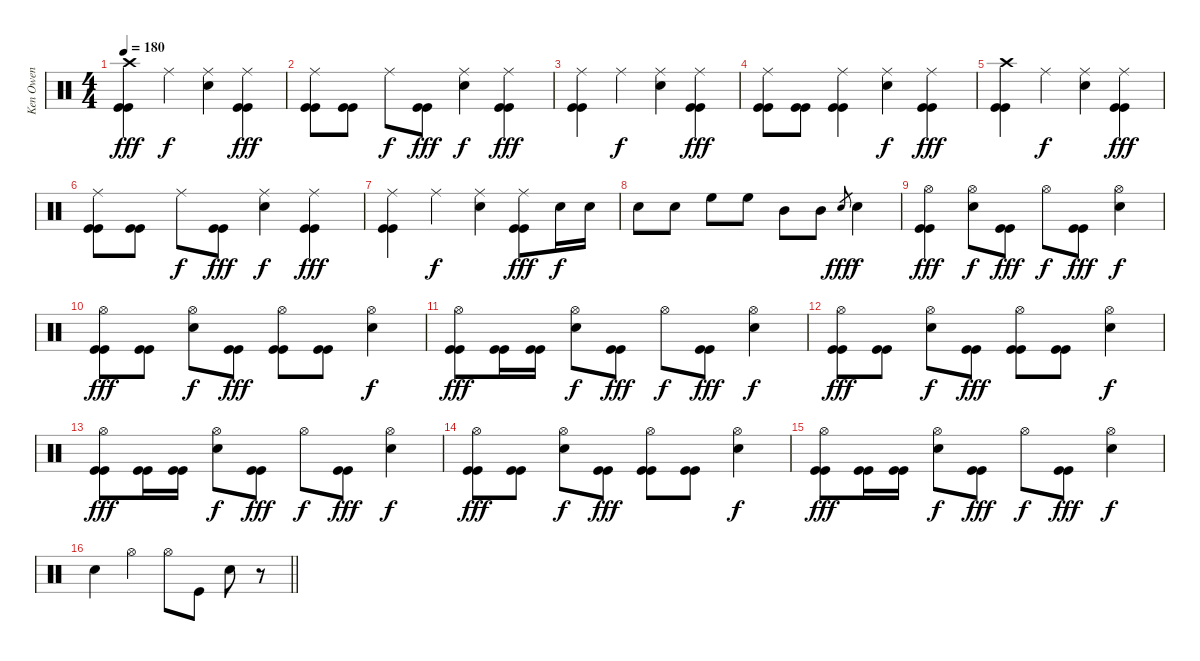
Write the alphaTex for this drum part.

\track ("Ken Owen" "Ken Owen") {instrument percussion}
\staff {score}
\articulation defaults
\ts (4 4)
\tempo 180
\clef neutral
\ks c
("Crash high (hit)" "Kick (hit)" "Kick (hit)").4{dy fff} "Ride (middle)".4{dy f} ("Ride (middle)" "Snare (hit) 2").4 ("Ride (middle)" "Kick (hit)" "Kick (hit)").4{dy fff} |
("Ride (middle)" "Kick (hit)" "Kick (hit)").8 ("Kick (hit)" "Kick (hit)").8 "Ride (middle)".8{dy f} ("Kick (hit)" "Kick (hit)").8{dy fff} ("Ride (middle)" "Snare (hit) 2").4{dy f} ("Ride (middle)" "Kick (hit)" "Kick (hit)").4{dy fff} |
("Ride (middle)" "Kick (hit)" "Kick (hit)").4 "Ride (middle)".4{dy f} ("Ride (middle)" "Snare (hit) 2").4 ("Ride (middle)" "Kick (hit)" "Kick (hit)").4{dy fff} |
("Ride (middle)" "Kick (hit)" "Kick (hit)").8 ("Kick (hit)" "Kick (hit)").8 ("Ride (middle)" "Kick (hit)" "Kick (hit)").4 ("Ride (middle)" "Snare (hit) 2").4{dy f} ("Ride (middle)" "Kick (hit)" "Kick (hit)").4{dy fff} |
("Crash high (hit)" "Kick (hit)" "Kick (hit)").4 "Ride (middle)".4{dy f} ("Ride (middle)" "Snare (hit) 2").4 ("Ride (middle)" "Kick (hit)" "Kick (hit)").4{dy fff} |
("Ride (middle)" "Kick (hit)" "Kick (hit)").8 ("Kick (hit)" "Kick (hit)").8 "Ride (middle)".8{dy f} ("Kick (hit)" "Kick (hit)").8{dy fff} ("Ride (middle)" "Snare (hit) 2").4{dy f} ("Ride (middle)" "Kick (hit)" "Kick (hit)").4{dy fff} |
("Ride (middle)" "Kick (hit)" "Kick (hit)").4 "Ride (middle)".4{dy f} ("Ride (middle)" "Snare (hit) 2").4 ("Ride (middle)" "Kick (hit)" "Kick (hit)").8{dy fff} "Snare (hit) 2".16{dy f} "Snare (hit) 2".16 |
"Snare (hit) 2".8 "Snare (hit) 2".8 "High Floor Tom (hit)".8 "High Floor Tom (hit)".8 "Mid Tom (hit)".8 "Mid Tom (hit)".8 "Snare (hit) 2".8{gr dy fff} "Snare (hit) 2".4{dy f} |
("Hi-Hat (open)" "Kick (hit)" "Kick (hit)").4{dy fff} ("Hi-Hat (open)" "Snare (hit) 2").8{dy f} ("Kick (hit)" "Kick (hit)").8{dy fff} "Hi-Hat (open)".8{dy f} ("Kick (hit)" "Kick (hit)").8{dy fff} ("Hi-Hat (open)" "Snare (hit) 2").4{dy f} |
("Hi-Hat (open)" "Kick (hit)" "Kick (hit)").8{dy fff} ("Kick (hit)" "Kick (hit)").8 ("Hi-Hat (open)" "Snare (hit) 2").8{dy f} ("Kick (hit)" "Kick (hit)").8{dy fff} ("Hi-Hat (open)" "Kick (hit)" "Kick (hit)").8 ("Kick (hit)" "Kick (hit)").8 ("Hi-Hat (open)" "Snare (hit) 2").4{dy f} |
("Hi-Hat (open)" "Kick (hit)" "Kick (hit)").8{dy fff} ("Kick (hit)" "Kick (hit)").16 ("Kick (hit)" "Kick (hit)").16 ("Hi-Hat (open)" "Snare (hit) 2").8{dy f} ("Kick (hit)" "Kick (hit)").8{dy fff} "Hi-Hat (open)".8{dy f} ("Kick (hit)" "Kick (hit)").8{dy fff} ("Hi-Hat (open)" "Snare (hit) 2").4{dy f} |
("Hi-Hat (open)" "Kick (hit)" "Kick (hit)").8{dy fff} ("Kick (hit)" "Kick (hit)").8 ("Hi-Hat (open)" "Snare (hit) 2").8{dy f} ("Kick (hit)" "Kick (hit)").8{dy fff} ("Hi-Hat (open)" "Kick (hit)" "Kick (hit)").8 ("Kick (hit)" "Kick (hit)").8 ("Hi-Hat (open)" "Snare (hit) 2").4{dy f} |
("Hi-Hat (open)" "Kick (hit)" "Kick (hit)").8{dy fff} ("Kick (hit)" "Kick (hit)").16 ("Kick (hit)" "Kick (hit)").16 ("Hi-Hat (open)" "Snare (hit) 2").8{dy f} ("Kick (hit)" "Kick (hit)").8{dy fff} "Hi-Hat (open)".8{dy f} ("Kick (hit)" "Kick (hit)").8{dy fff} ("Hi-Hat (open)" "Snare (hit) 2").4{dy f} |
("Hi-Hat (open)" "Kick (hit)" "Kick (hit)").8{dy fff} ("Kick (hit)" "Kick (hit)").8 ("Hi-Hat (open)" "Snare (hit) 2").8{dy f} ("Kick (hit)" "Kick (hit)").8{dy fff} ("Hi-Hat (open)" "Kick (hit)" "Kick (hit)").8 ("Kick (hit)" "Kick (hit)").8 ("Hi-Hat (open)" "Snare (hit) 2").4{dy f} |
("Hi-Hat (open)" "Kick (hit)" "Kick (hit)").8{dy fff} ("Kick (hit)" "Kick (hit)").16 ("Kick (hit)" "Kick (hit)").16 ("Hi-Hat (open)" "Snare (hit) 2").8{dy f} ("Kick (hit)" "Kick (hit)").8{dy fff} "Hi-Hat (open)".8{dy f} ("Kick (hit)" "Kick (hit)").8{dy fff} ("Hi-Hat (open)" "Snare (hit) 2").4{dy f} |
\barLineRight lightlight "Snare (hit) 2".4 "Hi-Hat (open)".4 "Hi-Hat (open)".8 "Kick (hit)".8 "Snare (hit) 2".8
r.8
